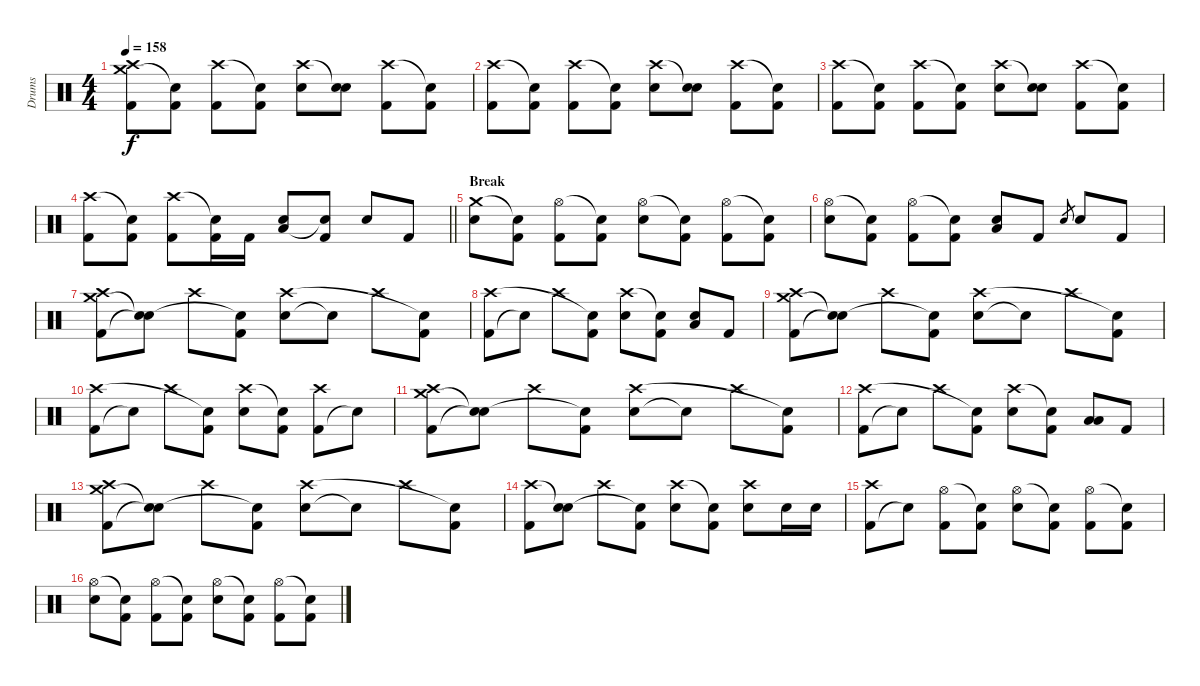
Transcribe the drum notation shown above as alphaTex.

\track ("Drums" "Drums") {instrument percussion}
\staff {score}
\articulation defaults
\ts (4 4)
\tempo 158
\clef neutral
\ks c
("Kick (hit) 2" "Crash medium (hit)" "Crash high (hit)").8{dy f} ("Kick (hit) 2" "Snare (hit)"{t}).8 ("Kick (hit) 2" "Crash high (hit)").8 ("Kick (hit) 2" "Snare (hit)"{t}).8 ("Electric Snare (hit)" "Crash high (hit)").8 ("Electric Snare (hit)" "Snare (hit)"{t}).8 ("Kick (hit) 2" "Crash high (hit)").8 ("Kick (hit) 2" "Snare (hit)"{t}).8 |
("Kick (hit) 2" "Crash high (hit)").8 ("Kick (hit) 2" "Snare (hit)"{t}).8 ("Kick (hit) 2" "Crash high (hit)").8 ("Kick (hit) 2" "Snare (hit)"{t}).8 ("Electric Snare (hit)" "Crash high (hit)").8 ("Electric Snare (hit)" "Snare (hit)"{t}).8 ("Kick (hit) 2" "Crash high (hit)").8 ("Kick (hit) 2" "Snare (hit)"{t}).8 |
("Kick (hit) 2" "Crash high (hit)").8 ("Kick (hit) 2" "Snare (hit)"{t}).8 ("Kick (hit) 2" "Crash high (hit)").8 ("Kick (hit) 2" "Snare (hit)"{t}).8 ("Electric Snare (hit)" "Crash high (hit)").8 ("Electric Snare (hit)" "Snare (hit)"{t}).8 ("Kick (hit) 2" "Crash high (hit)").8 ("Kick (hit) 2" "Snare (hit)"{t}).8 |
\barLineRight lightlight
("Kick (hit) 2" "Crash high (hit)").8 ("Kick (hit) 2" "Snare (hit)"{t}).8 ("Kick (hit) 2" "Crash high (hit)").8 ("Kick (hit) 2" "Snare (hit)"{t}).16 "Kick (hit) 2".16 ("Electric Snare (hit)" "Low Floor Tom (hit)").8 ("Kick (hit) 2" "Snare (hit)"{t}).8 "Electric Snare (hit)".8 "Kick (hit) 2".8 |
\section ("" "Break")
("Electric Snare (hit)" "Crash medium (hit)").8 ("Kick (hit) 2" "Snare (hit)"{t}).8 ("Kick (hit) 2" "Hi-Hat (open)").8 ("Kick (hit) 2" "Snare (hit)"{t}).8 ("Electric Snare (hit)" "Hi-Hat (open)").8 ("Kick (hit) 2" "Snare (hit)"{t}).8 ("Kick (hit) 2" "Hi-Hat (open)").8 ("Kick (hit) 2" "Snare (hit)"{t}).8 |
("Electric Snare (hit)" "Hi-Hat (open)").8 ("Kick (hit) 2" "Snare (hit)"{t}).8 ("Kick (hit) 2" "Hi-Hat (open)").8 ("Kick (hit) 2" "Snare (hit)"{t}).8 ("Electric Snare (hit)" "Low Floor Tom (hit)").8 "Kick (hit) 2".8 "Electric Snare (hit)".8{gr} "Electric Snare (hit)".8 "Kick (hit) 2".8 |
("Kick (hit) 2" "Crash medium (hit)" "Crash high (hit)").8 ("Snare (hit)"{t} "Snare (hit)"{t}).8 "Crash high (hit)".8 ("Kick (hit) 2" "Snare (hit)"{t}).8 ("Electric Snare (hit)" "Crash high (hit)").8 "Snare (hit)"{t}.8 "Crash high (hit)".8 ("Kick (hit) 2" "Snare (hit)"{t}).8 |
("Kick (hit) 2" "Crash high (hit)").8 "Snare (hit)"{t}.8 "Crash high (hit)".8 ("Kick (hit) 2" "Snare (hit)"{t}).8 ("Electric Snare (hit)" "Crash high (hit)").8 ("Kick (hit) 2" "Snare (hit)"{t}).8 ("Electric Snare (hit)" "Low Floor Tom (hit)").8 "Kick (hit) 2".8 |
("Kick (hit) 2" "Crash medium (hit)" "Crash high (hit)").8 ("Snare (hit)"{t} "Snare (hit)"{t}).8 "Crash high (hit)".8 ("Kick (hit) 2" "Snare (hit)"{t}).8 ("Electric Snare (hit)" "Crash high (hit)").8 "Snare (hit)"{t}.8 "Crash high (hit)".8 ("Kick (hit) 2" "Snare (hit)"{t}).8 |
("Kick (hit) 2" "Crash high (hit)").8 "Snare (hit)"{t}.8 "Crash high (hit)".8 ("Kick (hit) 2" "Snare (hit)"{t}).8 ("Electric Snare (hit)" "Crash high (hit)").8 ("Kick (hit) 2" "Snare (hit)"{t}).8 ("Kick (hit) 2" "Crash high (hit)").8 "Snare (hit)"{t}.8 |
("Kick (hit) 2" "Crash medium (hit)" "Crash high (hit)").8 ("Snare (hit)"{t} "Snare (hit)"{t}).8 "Crash high (hit)".8 ("Kick (hit) 2" "Snare (hit)"{t}).8 ("Electric Snare (hit)" "Crash high (hit)").8 "Snare (hit)"{t}.8 "Crash high (hit)".8 ("Kick (hit) 2" "Snare (hit)"{t}).8 |
("Kick (hit) 2" "Crash high (hit)").8 "Snare (hit)"{t}.8 "Crash high (hit)".8 ("Kick (hit) 2" "Snare (hit)"{t}).8 ("Electric Snare (hit)" "Crash high (hit)").8 ("Kick (hit) 2" "Snare (hit)"{t}).8 ("Low Tom (hit)" "Low Floor Tom (hit)").8 "Kick (hit) 2".8 |
("Kick (hit) 2" "Crash medium (hit)" "Crash high (hit)").8 ("Snare (hit)"{t} "Snare (hit)"{t}).8 "Crash high (hit)".8 ("Kick (hit) 2" "Snare (hit)"{t}).8 ("Electric Snare (hit)" "Crash high (hit)").8 "Snare (hit)"{t}.8 "Crash high (hit)".8 ("Kick (hit) 2" "Snare (hit)"{t}).8 |
("Kick (hit) 2" "Crash high (hit)").8 ("Electric Snare (hit)" "Snare (hit)"{t}).8 "Crash high (hit)".8 ("Kick (hit) 2" "Snare (hit)"{t}).8 ("Electric Snare (hit)" "Crash high (hit)").8 ("Kick (hit) 2" "Snare (hit)"{t}).8 ("Electric Snare (hit)" "Crash high (hit)").8 "Electric Snare (hit)".16 "Electric Snare (hit)".16 |
("Kick (hit) 2" "Crash high (hit)").8 "Snare (hit)"{t}.8 ("Kick (hit) 2" "Hi-Hat (open)").8 ("Kick (hit) 2" "Snare (hit)"{t}).8 ("Electric Snare (hit)" "Hi-Hat (open)").8 ("Kick (hit) 2" "Snare (hit)"{t}).8 ("Kick (hit) 2" "Hi-Hat (open)").8 ("Kick (hit) 2" "Snare (hit)"{t}).8 |
("Electric Snare (hit)" "Hi-Hat (open)").8 ("Kick (hit) 2" "Snare (hit)"{t}).8 ("Kick (hit) 2" "Hi-Hat (open)").8 ("Kick (hit) 2" "Snare (hit)"{t}).8 ("Electric Snare (hit)" "Hi-Hat (open)").8 ("Kick (hit) 2" "Snare (hit)"{t}).8 ("Kick (hit) 2" "Hi-Hat (open)").8 ("Kick (hit) 2" "Snare (hit)"{t}).8
